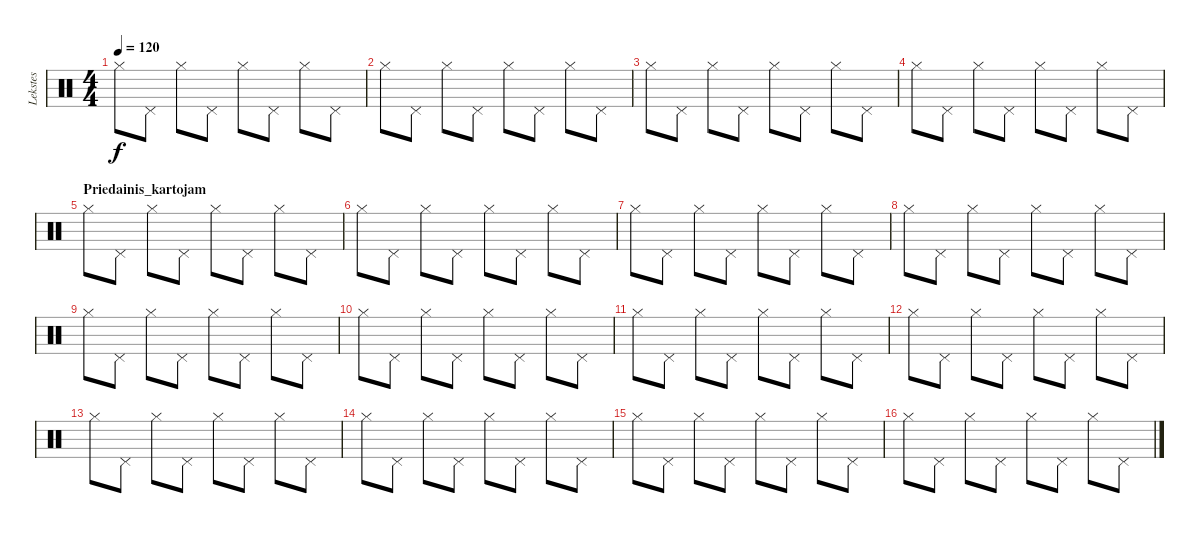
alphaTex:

\track ("Lekstes" "Lekstes") {instrument percussion}
\staff {score}
\articulation defaults
\ts (4 4)
\tempo 120
\clef neutral
\ks c "Hi-Hat (closed)".8{dy f} "Pedal Hi-Hat (hit)".8 "Hi-Hat (closed)".8 "Pedal Hi-Hat (hit)".8 "Hi-Hat (closed)".8 "Pedal Hi-Hat (hit)".8 "Hi-Hat (closed)".8 "Pedal Hi-Hat (hit)".8
|
"Hi-Hat (closed)".8 "Pedal Hi-Hat (hit)".8 "Hi-Hat (closed)".8 "Pedal Hi-Hat (hit)".8 "Hi-Hat (closed)".8 "Pedal Hi-Hat (hit)".8 "Hi-Hat (closed)".8 "Pedal Hi-Hat (hit)".8 |
"Hi-Hat (closed)".8 "Pedal Hi-Hat (hit)".8 "Hi-Hat (closed)".8 "Pedal Hi-Hat (hit)".8 "Hi-Hat (closed)".8 "Pedal Hi-Hat (hit)".8 "Hi-Hat (closed)".8 "Pedal Hi-Hat (hit)".8 |
"Hi-Hat (closed)".8 "Pedal Hi-Hat (hit)".8 "Hi-Hat (closed)".8 "Pedal Hi-Hat (hit)".8 "Hi-Hat (closed)".8 "Pedal Hi-Hat (hit)".8 "Hi-Hat (closed)".8 "Pedal Hi-Hat (hit)".8 |
\section ("" "Priedainis_kartojam")
"Hi-Hat (closed)".8 "Pedal Hi-Hat (hit)".8 "Hi-Hat (closed)".8 "Pedal Hi-Hat (hit)".8 "Hi-Hat (closed)".8 "Pedal Hi-Hat (hit)".8 "Hi-Hat (closed)".8 "Pedal Hi-Hat (hit)".8 |
"Hi-Hat (closed)".8 "Pedal Hi-Hat (hit)".8 "Hi-Hat (closed)".8 "Pedal Hi-Hat (hit)".8 "Hi-Hat (closed)".8 "Pedal Hi-Hat (hit)".8 "Hi-Hat (closed)".8 "Pedal Hi-Hat (hit)".8 |
"Hi-Hat (closed)".8 "Pedal Hi-Hat (hit)".8 "Hi-Hat (closed)".8 "Pedal Hi-Hat (hit)".8 "Hi-Hat (closed)".8 "Pedal Hi-Hat (hit)".8 "Hi-Hat (closed)".8 "Pedal Hi-Hat (hit)".8 |
"Hi-Hat (closed)".8 "Pedal Hi-Hat (hit)".8 "Hi-Hat (closed)".8 "Pedal Hi-Hat (hit)".8 "Hi-Hat (closed)".8 "Pedal Hi-Hat (hit)".8 "Hi-Hat (closed)".8 "Pedal Hi-Hat (hit)".8 |
"Hi-Hat (closed)".8 "Pedal Hi-Hat (hit)".8 "Hi-Hat (closed)".8 "Pedal Hi-Hat (hit)".8 "Hi-Hat (closed)".8 "Pedal Hi-Hat (hit)".8 "Hi-Hat (closed)".8 "Pedal Hi-Hat (hit)".8 |
"Hi-Hat (closed)".8 "Pedal Hi-Hat (hit)".8 "Hi-Hat (closed)".8 "Pedal Hi-Hat (hit)".8 "Hi-Hat (closed)".8 "Pedal Hi-Hat (hit)".8 "Hi-Hat (closed)".8 "Pedal Hi-Hat (hit)".8 |
"Hi-Hat (closed)".8 "Pedal Hi-Hat (hit)".8 "Hi-Hat (closed)".8 "Pedal Hi-Hat (hit)".8 "Hi-Hat (closed)".8 "Pedal Hi-Hat (hit)".8 "Hi-Hat (closed)".8 "Pedal Hi-Hat (hit)".8 |
"Hi-Hat (closed)".8 "Pedal Hi-Hat (hit)".8 "Hi-Hat (closed)".8 "Pedal Hi-Hat (hit)".8 "Hi-Hat (closed)".8 "Pedal Hi-Hat (hit)".8 "Hi-Hat (closed)".8 "Pedal Hi-Hat (hit)".8 |
"Hi-Hat (closed)".8 "Pedal Hi-Hat (hit)".8 "Hi-Hat (closed)".8 "Pedal Hi-Hat (hit)".8 "Hi-Hat (closed)".8 "Pedal Hi-Hat (hit)".8 "Hi-Hat (closed)".8 "Pedal Hi-Hat (hit)".8 |
"Hi-Hat (closed)".8 "Pedal Hi-Hat (hit)".8 "Hi-Hat (closed)".8 "Pedal Hi-Hat (hit)".8 "Hi-Hat (closed)".8 "Pedal Hi-Hat (hit)".8 "Hi-Hat (closed)".8 "Pedal Hi-Hat (hit)".8 |
"Hi-Hat (closed)".8 "Pedal Hi-Hat (hit)".8 "Hi-Hat (closed)".8 "Pedal Hi-Hat (hit)".8 "Hi-Hat (closed)".8 "Pedal Hi-Hat (hit)".8 "Hi-Hat (closed)".8 "Pedal Hi-Hat (hit)".8 |
"Hi-Hat (closed)".8 "Pedal Hi-Hat (hit)".8 "Hi-Hat (closed)".8 "Pedal Hi-Hat (hit)".8 "Hi-Hat (closed)".8 "Pedal Hi-Hat (hit)".8 "Hi-Hat (closed)".8 "Pedal Hi-Hat (hit)".8
